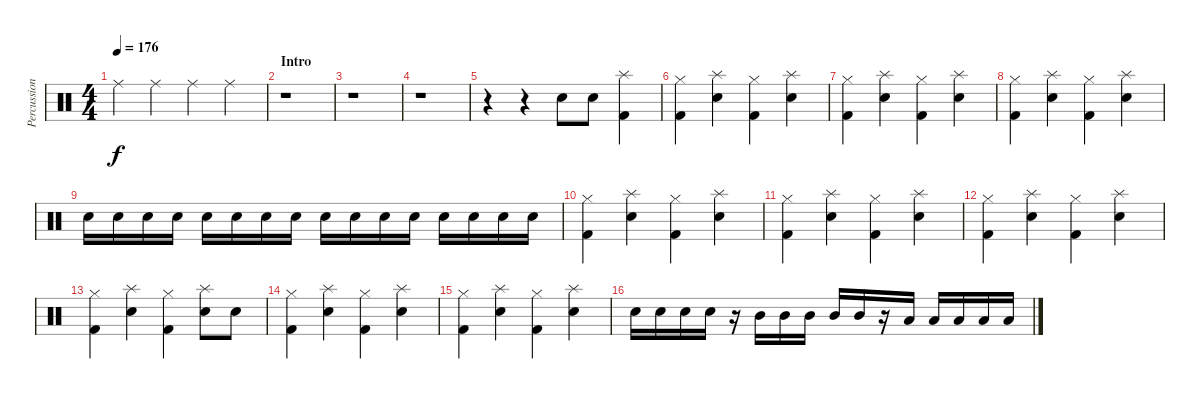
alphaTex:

\track ("Percussion" "Percussion") {instrument percussion}
\staff {score}
\articulation defaults
\ts (4 4)
\tempo 176
\clef neutral
\ks c "Ride (middle)".4{dy f} "Ride (middle)".4 "Ride (middle)".4 "Ride (middle)".4
|
\section ("" "Intro")
r.1 |
r.1 |
r.1 |
r.4 r.4 "Snare (hit) 2".8 "Snare (hit) 2".8 ("Splash (hit)" "Kick (hit) 2").4 |
("Hi-Hat (closed)" "Kick (hit) 2").4 ("Splash (hit)" "Snare (hit) 2").4 ("Hi-Hat (closed)" "Kick (hit) 2").4 ("Splash (hit)" "Snare (hit) 2").4 |
("Hi-Hat (closed)" "Kick (hit) 2").4 ("Splash (hit)" "Snare (hit) 2").4 ("Hi-Hat (closed)" "Kick (hit) 2").4 ("Splash (hit)" "Snare (hit) 2").4 |
("Hi-Hat (closed)" "Kick (hit) 2").4 ("Splash (hit)" "Snare (hit) 2").4 ("Hi-Hat (closed)" "Kick (hit) 2").4 ("Splash (hit)" "Snare (hit) 2").4 |
"Snare (hit) 2".16 "Snare (hit) 2".16 "Snare (hit) 2".16 "Snare (hit) 2".16 "Snare (hit) 2".16 "Snare (hit) 2".16 "Snare (hit) 2".16 "Snare (hit) 2".16 "Snare (hit) 2".16 "Snare (hit) 2".16 "Snare (hit) 2".16 "Snare (hit) 2".16 "Snare (hit) 2".16 "Snare (hit) 2".16 "Snare (hit) 2".16 "Snare (hit) 2".16 |
("Hi-Hat (closed)" "Kick (hit) 2").4 ("Splash (hit)" "Snare (hit) 2").4 ("Hi-Hat (closed)" "Kick (hit) 2").4 ("Splash (hit)" "Snare (hit) 2").4 |
("Hi-Hat (closed)" "Kick (hit) 2").4 ("Splash (hit)" "Snare (hit) 2").4 ("Hi-Hat (closed)" "Kick (hit) 2").4 ("Splash (hit)" "Snare (hit) 2").4 |
("Hi-Hat (closed)" "Kick (hit) 2").4 ("Splash (hit)" "Snare (hit) 2").4 ("Hi-Hat (closed)" "Kick (hit) 2").4 ("Splash (hit)" "Snare (hit) 2").4 |
("Hi-Hat (closed)" "Kick (hit) 2").4 ("Splash (hit)" "Snare (hit) 2").4 ("Hi-Hat (closed)" "Kick (hit) 2").4 ("Splash (hit)" "Snare (hit) 2").8 "Snare (hit) 2".8 |
("Hi-Hat (closed)" "Kick (hit) 2").4 ("Splash (hit)" "Snare (hit) 2").4 ("Hi-Hat (closed)" "Kick (hit) 2").4 ("Splash (hit)" "Snare (hit) 2").4 |
("Hi-Hat (closed)" "Kick (hit) 2").4 ("Splash (hit)" "Snare (hit) 2").4 ("Hi-Hat (closed)" "Kick (hit) 2").4 ("Splash (hit)" "Snare (hit) 2").4 |
"Snare (hit) 2".16 "Snare (hit) 2".16 "Snare (hit) 2".16 "Snare (hit) 2".16 r.16 "Mid Tom (hit)".16 "Mid Tom (hit)".16 "Mid Tom (hit)".16 "Mid Tom (hit)".16 "Mid Tom (hit)".16 r.16 "Low Tom (hit)".16 "Low Tom (hit)".16 "Low Tom (hit)".16 "Low Tom (hit)".16 "Low Tom (hit)".16
